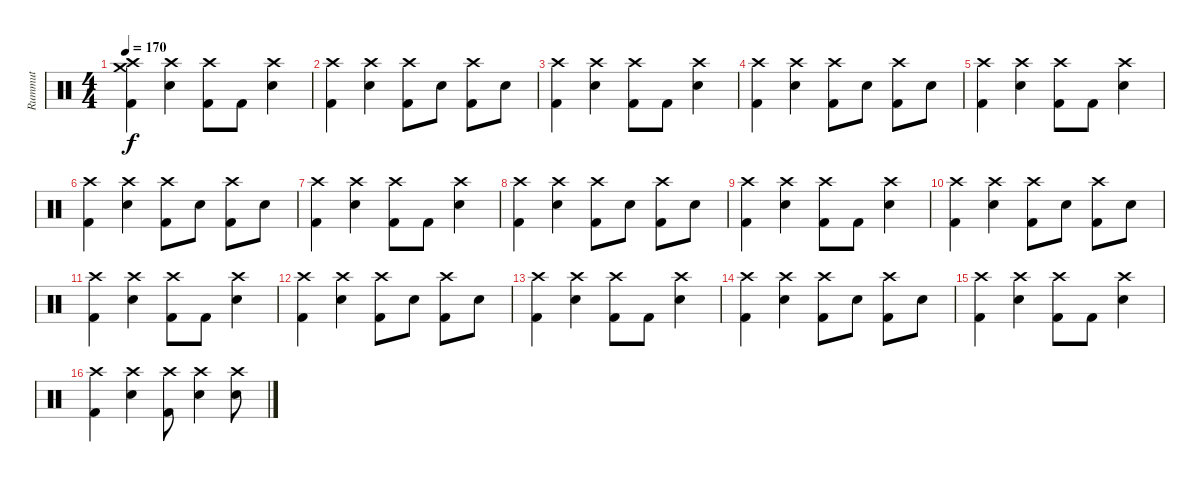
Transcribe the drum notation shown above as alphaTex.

\track ("Rummut" "Rummut") {instrument percussion}
\staff {score}
\articulation defaults
\ts (4 4)
\tempo 170
\clef neutral
\ks c
("Crash high (hit)" "Crash medium (hit)" "Kick (hit) 2").4{dy f} ("Crash high (hit)" "Electric Snare (hit)").4 ("Crash high (hit)" "Kick (hit) 2").8 "Kick (hit) 2".8 ("Crash high (hit)" "Electric Snare (hit)").4 |
("Crash high (hit)" "Kick (hit) 2").4 ("Crash high (hit)" "Electric Snare (hit)").4 ("Crash high (hit)" "Kick (hit) 2").8 "Electric Snare (hit)".8 ("Crash high (hit)" "Kick (hit) 2").8 "Electric Snare (hit)".8 |
("Crash high (hit)" "Kick (hit) 2").4 ("Crash high (hit)" "Electric Snare (hit)").4 ("Crash high (hit)" "Kick (hit) 2").8 "Kick (hit) 2".8 ("Crash high (hit)" "Electric Snare (hit)").4 |
("Crash high (hit)" "Kick (hit) 2").4 ("Crash high (hit)" "Electric Snare (hit)").4 ("Crash high (hit)" "Kick (hit) 2").8 "Electric Snare (hit)".8 ("Crash high (hit)" "Kick (hit) 2").8 "Electric Snare (hit)".8 |
("Crash high (hit)" "Kick (hit) 2").4 ("Crash high (hit)" "Electric Snare (hit)").4 ("Crash high (hit)" "Kick (hit) 2").8 "Kick (hit) 2".8 ("Crash high (hit)" "Electric Snare (hit)").4 |
("Crash high (hit)" "Kick (hit) 2").4 ("Crash high (hit)" "Electric Snare (hit)").4 ("Crash high (hit)" "Kick (hit) 2").8 "Electric Snare (hit)".8 ("Crash high (hit)" "Kick (hit) 2").8 "Electric Snare (hit)".8 |
("Crash high (hit)" "Kick (hit) 2").4 ("Crash high (hit)" "Electric Snare (hit)").4 ("Crash high (hit)" "Kick (hit) 2").8 "Kick (hit) 2".8 ("Crash high (hit)" "Electric Snare (hit)").4 |
("Crash high (hit)" "Kick (hit) 2").4 ("Crash high (hit)" "Electric Snare (hit)").4 ("Crash high (hit)" "Kick (hit) 2").8 "Electric Snare (hit)".8 ("Crash high (hit)" "Kick (hit) 2").8 "Electric Snare (hit)".8 |
("Crash high (hit)" "Kick (hit) 2").4 ("Crash high (hit)" "Electric Snare (hit)").4 ("Crash high (hit)" "Kick (hit) 2").8 "Kick (hit) 2".8 ("Crash high (hit)" "Electric Snare (hit)").4 |
("Crash high (hit)" "Kick (hit) 2").4 ("Crash high (hit)" "Electric Snare (hit)").4 ("Crash high (hit)" "Kick (hit) 2").8 "Electric Snare (hit)".8 ("Crash high (hit)" "Kick (hit) 2").8 "Electric Snare (hit)".8 |
("Crash high (hit)" "Kick (hit) 2").4 ("Crash high (hit)" "Electric Snare (hit)").4 ("Crash high (hit)" "Kick (hit) 2").8 "Kick (hit) 2".8 ("Crash high (hit)" "Electric Snare (hit)").4 |
("Crash high (hit)" "Kick (hit) 2").4 ("Crash high (hit)" "Electric Snare (hit)").4 ("Crash high (hit)" "Kick (hit) 2").8 "Electric Snare (hit)".8 ("Crash high (hit)" "Kick (hit) 2").8 "Electric Snare (hit)".8 |
("Crash high (hit)" "Kick (hit) 2").4 ("Crash high (hit)" "Electric Snare (hit)").4 ("Crash high (hit)" "Kick (hit) 2").8 "Kick (hit) 2".8 ("Crash high (hit)" "Electric Snare (hit)").4 |
("Crash high (hit)" "Kick (hit) 2").4 ("Crash high (hit)" "Electric Snare (hit)").4 ("Crash high (hit)" "Kick (hit) 2").8 "Electric Snare (hit)".8 ("Crash high (hit)" "Kick (hit) 2").8 "Electric Snare (hit)".8 |
("Crash high (hit)" "Kick (hit) 2").4 ("Crash high (hit)" "Electric Snare (hit)").4 ("Crash high (hit)" "Kick (hit) 2").8 "Kick (hit) 2".8 ("Crash high (hit)" "Electric Snare (hit)").4 |
("Crash high (hit)" "Kick (hit) 2").4 ("Crash high (hit)" "Electric Snare (hit)").4 ("Crash high (hit)" "Kick (hit) 2").8 ("Crash high (hit)" "Electric Snare (hit)").4 ("Crash high (hit)" "Electric Snare (hit)").8
